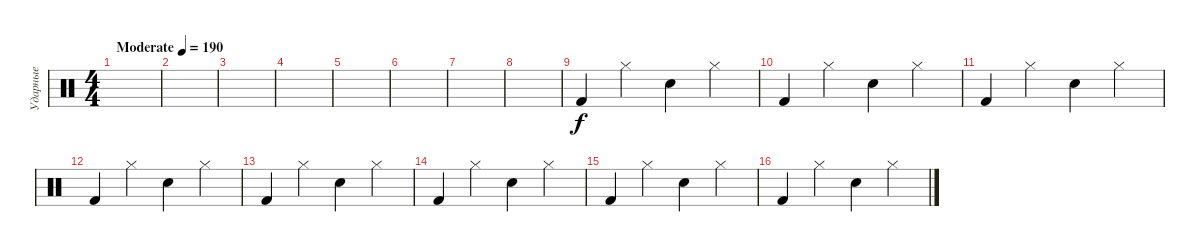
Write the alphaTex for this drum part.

\track ("Ударные" "Ударные") {instrument percussion}
\staff {score}
\articulation defaults
\ts (4 4)
\tempo (190 "Moderate")
\clef neutral
\ks c
|
|
|
|
|
|
|
|
"Kick (hit) 2".4 "Hi-Hat (closed)".4 "Snare (hit) 2".4 "Hi-Hat (closed)".4 |
"Kick (hit) 2".4 "Hi-Hat (closed)".4 "Snare (hit) 2".4 "Hi-Hat (closed)".4 |
"Kick (hit) 2".4 "Hi-Hat (closed)".4 "Snare (hit) 2".4 "Hi-Hat (closed)".4 |
"Kick (hit) 2".4 "Hi-Hat (closed)".4 "Snare (hit) 2".4 "Hi-Hat (closed)".4 |
"Kick (hit) 2".4 "Hi-Hat (closed)".4 "Snare (hit) 2".4 "Hi-Hat (closed)".4 |
"Kick (hit) 2".4 "Hi-Hat (closed)".4 "Snare (hit) 2".4 "Hi-Hat (closed)".4 |
"Kick (hit) 2".4 "Hi-Hat (closed)".4 "Snare (hit) 2".4 "Hi-Hat (closed)".4 |
"Kick (hit) 2".4 "Hi-Hat (closed)".4 "Snare (hit) 2".4 "Hi-Hat (closed)".4
